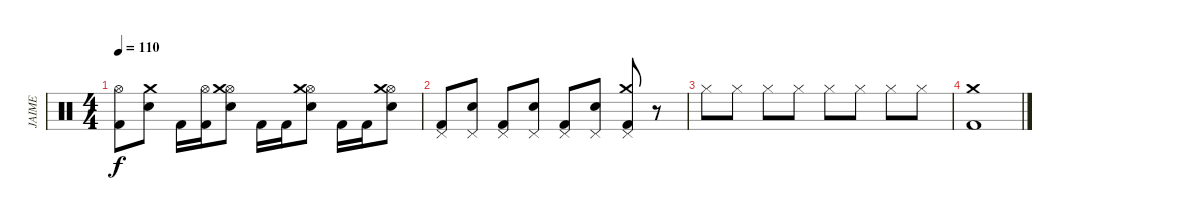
\track ("JAIME" "JAIME") {instrument percussion}
\staff {score}
\articulation defaults
\ts (4 4)
\tempo 110
\clef neutral
\ks c
("Kick (hit) 2" "Hi-Hat (open)").8{dy f} ("Electric Snare (hit)" "Crash medium (hit)").8 "Kick (hit) 2".16 ("Kick (hit) 2" "Hi-Hat (open)").16 ("Electric Snare (hit)" "Hi-Hat (open)" "Crash medium (hit)").8 "Kick (hit) 2".16 "Kick (hit) 2".16 ("Electric Snare (hit)" "Hi-Hat (open)" "Crash medium (hit)").8 "Kick (hit) 2".16 "Kick (hit) 2".16 ("Electric Snare (hit)" "Hi-Hat (open)" "Crash medium (hit)").8 |
("Kick (hit) 2" "Pedal Hi-Hat (hit)").8 ("Electric Snare (hit)" "Pedal Hi-Hat (hit)").8 ("Kick (hit) 2" "Pedal Hi-Hat (hit)").8 ("Electric Snare (hit)" "Pedal Hi-Hat (hit)").8 ("Kick (hit) 2" "Pedal Hi-Hat (hit)").8 ("Electric Snare (hit)" "Pedal Hi-Hat (hit)").8 ("Kick (hit) 2" "Crash medium (hit)" "Pedal Hi-Hat (hit)").8 r.8 |
"Hi-Hat (closed)".8 "Hi-Hat (closed)".8 "Hi-Hat (closed)".8 "Hi-Hat (closed)".8 "Hi-Hat (closed)".8 "Hi-Hat (closed)".8 "Hi-Hat (closed)".8 "Hi-Hat (closed)".8 |
("Kick (hit) 2" "Crash medium (hit)").1
